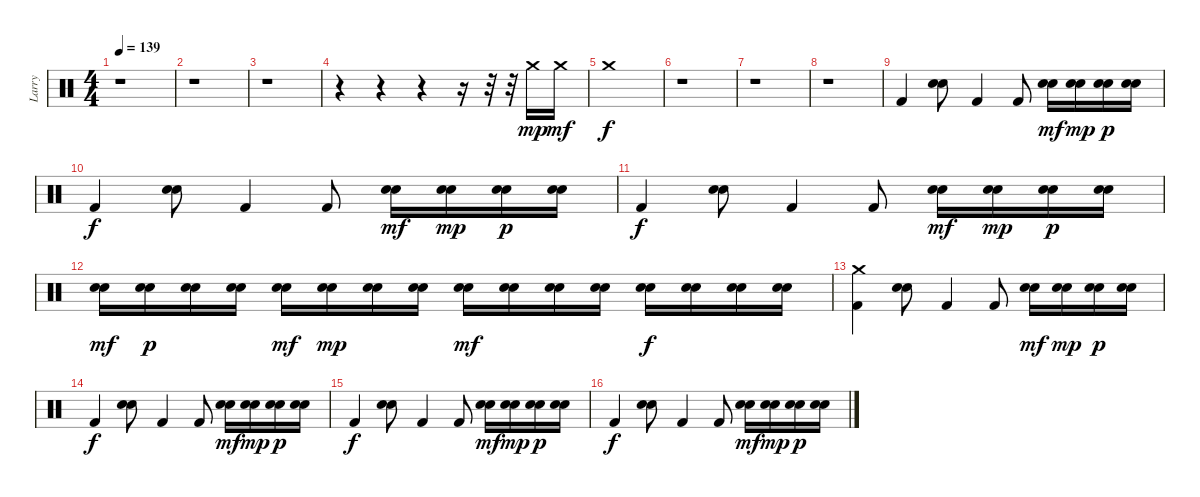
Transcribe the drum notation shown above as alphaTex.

\track ("Larry" "Larry") {instrument percussion}
\staff {score}
\articulation defaults
\ts (4 4)
\tempo 139
\clef neutral
\ks c
r.1{dy mp} |
r.1 |
r.1 |
r.4 r.4 r.4 r.16 r.32 r.32 "Crash medium (hit)".16 "Crash medium (hit)".16{dy mf} |
"Crash medium (hit)".1{dy f} |
r.1 |
r.1 |
r.1 |
"Kick (hit) 2".4 ("Snare (hit) 2" "Electric Snare (hit)").8 "Kick (hit) 2".4 "Kick (hit) 2".8 ("Snare (hit) 2" "Electric Snare (hit)").16{dy mf} ("Snare (hit) 2" "Electric Snare (hit)").16{dy mp} ("Snare (hit) 2" "Electric Snare (hit)").16{dy p} ("Snare (hit) 2" "Electric Snare (hit)").16 |
"Kick (hit) 2".4{dy f} ("Snare (hit) 2" "Electric Snare (hit)").8 "Kick (hit) 2".4 "Kick (hit) 2".8 ("Snare (hit) 2" "Electric Snare (hit)").16{dy mf} ("Snare (hit) 2" "Electric Snare (hit)").16{dy mp} ("Snare (hit) 2" "Electric Snare (hit)").16{dy p} ("Snare (hit) 2" "Electric Snare (hit)").16 |
"Kick (hit) 2".4{dy f} ("Snare (hit) 2" "Electric Snare (hit)").8 "Kick (hit) 2".4 "Kick (hit) 2".8 ("Snare (hit) 2" "Electric Snare (hit)").16{dy mf} ("Snare (hit) 2" "Electric Snare (hit)").16{dy mp} ("Snare (hit) 2" "Electric Snare (hit)").16{dy p} ("Snare (hit) 2" "Electric Snare (hit)").16 |
("Snare (hit) 2" "Electric Snare (hit)").16{dy mf} ("Snare (hit) 2" "Electric Snare (hit)").16{dy p} ("Snare (hit) 2" "Electric Snare (hit)").16 ("Snare (hit) 2" "Electric Snare (hit)").16 ("Snare (hit) 2" "Electric Snare (hit)").16{dy mf} ("Snare (hit) 2" "Electric Snare (hit)").16{dy mp} ("Snare (hit) 2" "Electric Snare (hit)").16 ("Snare (hit) 2" "Electric Snare (hit)").16 ("Snare (hit) 2" "Electric Snare (hit)").16{dy mf} ("Snare (hit) 2" "Electric Snare (hit)").16 ("Snare (hit) 2" "Electric Snare (hit)").16 ("Snare (hit) 2" "Electric Snare (hit)").16 ("Snare (hit) 2" "Electric Snare (hit)").16{dy f} ("Snare (hit) 2" "Electric Snare (hit)").16 ("Snare (hit) 2" "Electric Snare (hit)").16 ("Snare (hit) 2" "Electric Snare (hit)").16 |
("Crash medium (hit)" "Kick (hit) 2").4 ("Snare (hit) 2" "Electric Snare (hit)").8 "Kick (hit) 2".4 "Kick (hit) 2".8 ("Snare (hit) 2" "Electric Snare (hit)").16{dy mf} ("Snare (hit) 2" "Electric Snare (hit)").16{dy mp} ("Snare (hit) 2" "Electric Snare (hit)").16{dy p} ("Snare (hit) 2" "Electric Snare (hit)").16 |
"Kick (hit) 2".4{dy f} ("Snare (hit) 2" "Electric Snare (hit)").8 "Kick (hit) 2".4 "Kick (hit) 2".8 ("Snare (hit) 2" "Electric Snare (hit)").16{dy mf} ("Snare (hit) 2" "Electric Snare (hit)").16{dy mp} ("Snare (hit) 2" "Electric Snare (hit)").16{dy p} ("Snare (hit) 2" "Electric Snare (hit)").16 |
"Kick (hit) 2".4{dy f} ("Snare (hit) 2" "Electric Snare (hit)").8 "Kick (hit) 2".4 "Kick (hit) 2".8 ("Snare (hit) 2" "Electric Snare (hit)").16{dy mf} ("Snare (hit) 2" "Electric Snare (hit)").16{dy mp} ("Snare (hit) 2" "Electric Snare (hit)").16{dy p} ("Snare (hit) 2" "Electric Snare (hit)").16 |
"Kick (hit) 2".4{dy f} ("Snare (hit) 2" "Electric Snare (hit)").8 "Kick (hit) 2".4 "Kick (hit) 2".8 ("Snare (hit) 2" "Electric Snare (hit)").16{dy mf} ("Snare (hit) 2" "Electric Snare (hit)").16{dy mp} ("Snare (hit) 2" "Electric Snare (hit)").16{dy p} ("Snare (hit) 2" "Electric Snare (hit)").16
